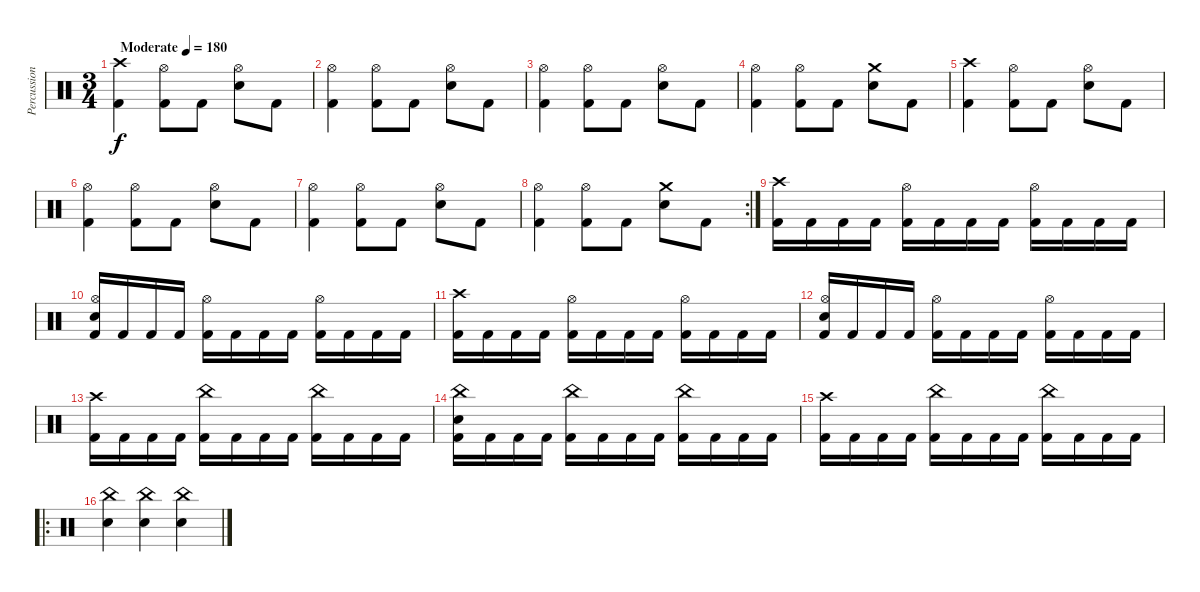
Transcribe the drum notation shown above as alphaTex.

\track ("Percussions" "Percussion") {instrument percussion}
\staff {score}
\articulation defaults
\ts (3 4)
\tempo (180 "Moderate")
\clef neutral
\ks c
("Crash high (hit)" "Kick (hit) 2").4{dy f} ("Hi-Hat (open)" "Kick (hit) 2").8 "Kick (hit) 2".8 ("Hi-Hat (open)" "Electric Snare (hit)").8 "Kick (hit) 2".8 |
("Hi-Hat (open)" "Kick (hit) 2").4 ("Hi-Hat (open)" "Kick (hit) 2").8 "Kick (hit) 2".8 ("Hi-Hat (open)" "Electric Snare (hit)").8 "Kick (hit) 2".8 |
("Hi-Hat (open)" "Kick (hit) 2").4 ("Hi-Hat (open)" "Kick (hit) 2").8 "Kick (hit) 2".8 ("Hi-Hat (open)" "Electric Snare (hit)").8 "Kick (hit) 2".8 |
("Hi-Hat (open)" "Kick (hit) 2").4 ("Hi-Hat (open)" "Kick (hit) 2").8 "Kick (hit) 2".8 ("Crash medium (hit)" "Electric Snare (hit)").8 "Kick (hit) 2".8 |
("Crash high (hit)" "Kick (hit) 2").4 ("Hi-Hat (open)" "Kick (hit) 2").8 "Kick (hit) 2".8 ("Hi-Hat (open)" "Electric Snare (hit)").8 "Kick (hit) 2".8 |
("Hi-Hat (open)" "Kick (hit) 2").4 ("Hi-Hat (open)" "Kick (hit) 2").8 "Kick (hit) 2".8 ("Hi-Hat (open)" "Electric Snare (hit)").8 "Kick (hit) 2".8 |
("Hi-Hat (open)" "Kick (hit) 2").4 ("Hi-Hat (open)" "Kick (hit) 2").8 "Kick (hit) 2".8 ("Hi-Hat (open)" "Electric Snare (hit)").8 "Kick (hit) 2".8 |
\rc 2
("Hi-Hat (open)" "Kick (hit) 2").4 ("Hi-Hat (open)" "Kick (hit) 2").8 "Kick (hit) 2".8 ("Crash medium (hit)" "Electric Snare (hit)").8 "Kick (hit) 2".8 |
("Crash high (hit)" "Kick (hit) 2").16 "Kick (hit) 2".16 "Kick (hit) 2".16 "Kick (hit) 2".16 ("Hi-Hat (open)" "Kick (hit) 2").16 "Kick (hit) 2".16 "Kick (hit) 2".16 "Kick (hit) 2".16 ("Hi-Hat (open)" "Kick (hit) 2").16 "Kick (hit) 2".16 "Kick (hit) 2".16 "Kick (hit) 2".16 |
("Hi-Hat (open)" "Electric Snare (hit)" "Kick (hit) 2").16 "Kick (hit) 2".16 "Kick (hit) 2".16 "Kick (hit) 2".16 ("Hi-Hat (open)" "Kick (hit) 2").16 "Kick (hit) 2".16 "Kick (hit) 2".16 "Kick (hit) 2".16 ("Hi-Hat (open)" "Kick (hit) 2").16 "Kick (hit) 2".16 "Kick (hit) 2".16 "Kick (hit) 2".16 |
("Crash high (hit)" "Kick (hit) 2").16 "Kick (hit) 2".16 "Kick (hit) 2".16 "Kick (hit) 2".16 ("Hi-Hat (open)" "Kick (hit) 2").16 "Kick (hit) 2".16 "Kick (hit) 2".16 "Kick (hit) 2".16 ("Hi-Hat (open)" "Kick (hit) 2").16 "Kick (hit) 2".16 "Kick (hit) 2".16 "Kick (hit) 2".16 |
("Hi-Hat (open)" "Electric Snare (hit)" "Kick (hit) 2").16 "Kick (hit) 2".16 "Kick (hit) 2".16 "Kick (hit) 2".16 ("Hi-Hat (open)" "Kick (hit) 2").16 "Kick (hit) 2".16 "Kick (hit) 2".16 "Kick (hit) 2".16 ("Hi-Hat (open)" "Kick (hit) 2").16 "Kick (hit) 2".16 "Kick (hit) 2".16 "Kick (hit) 2".16 |
("Crash high (hit)" "Kick (hit) 2").16 "Kick (hit) 2".16 "Kick (hit) 2".16 "Kick (hit) 2".16 ("China (hit)" "Kick (hit) 2").16 "Kick (hit) 2".16 "Kick (hit) 2".16 "Kick (hit) 2".16 ("China (hit)" "Kick (hit) 2").16 "Kick (hit) 2".16 "Kick (hit) 2".16 "Kick (hit) 2".16 |
("China (hit)" "Electric Snare (hit)" "Kick (hit) 2").16 "Kick (hit) 2".16 "Kick (hit) 2".16 "Kick (hit) 2".16 ("China (hit)" "Kick (hit) 2").16 "Kick (hit) 2".16 "Kick (hit) 2".16 "Kick (hit) 2".16 ("China (hit)" "Kick (hit) 2").16 "Kick (hit) 2".16 "Kick (hit) 2".16 "Kick (hit) 2".16 |
("Crash high (hit)" "Kick (hit) 2").16 "Kick (hit) 2".16 "Kick (hit) 2".16 "Kick (hit) 2".16 ("China (hit)" "Kick (hit) 2").16 "Kick (hit) 2".16 "Kick (hit) 2".16 "Kick (hit) 2".16 ("China (hit)" "Kick (hit) 2").16 "Kick (hit) 2".16 "Kick (hit) 2".16 "Kick (hit) 2".16 |
\ro
("China (hit)" "Electric Snare (hit)").4 ("China (hit)" "Electric Snare (hit)").4 ("China (hit)" "Electric Snare (hit)").4
